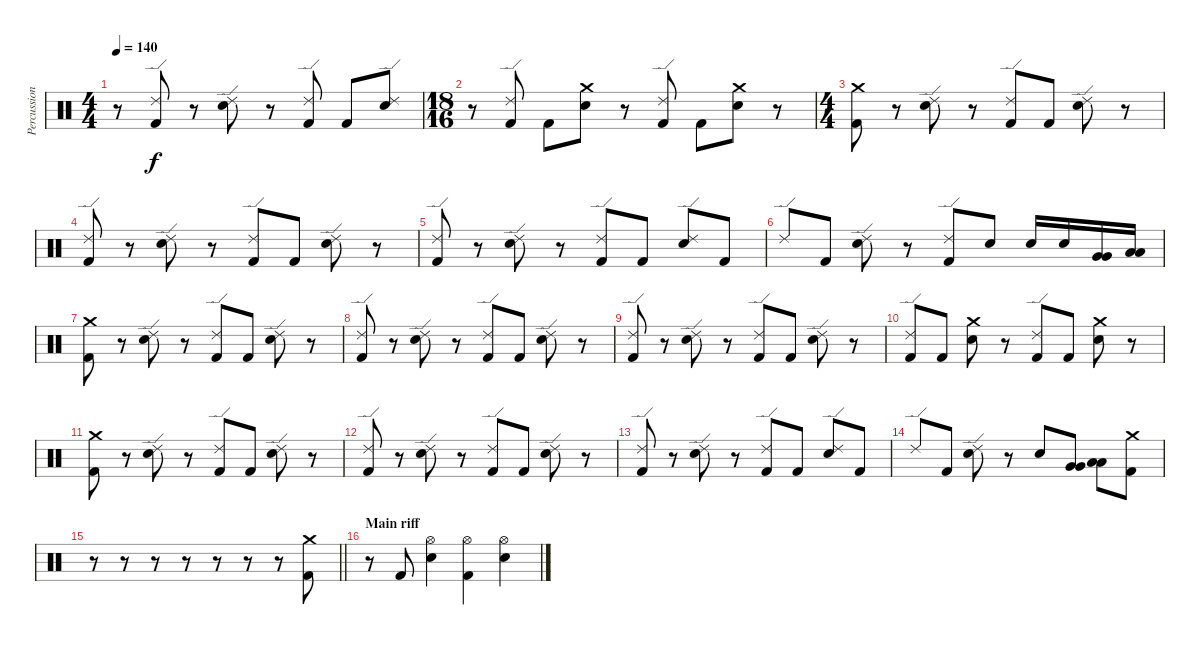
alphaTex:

\track ("Percussion" "Percussion") {instrument percussion}
\staff {score}
\articulation defaults
\ts (4 4)
\tempo 140
\clef neutral
\ks c
r.8{dy f} ("Ride (edge) 2" "Kick (hit) 2").8 r.8 ("Ride (edge) 2" "Electric Snare (hit)").8 r.8 ("Ride (edge) 2" "Kick (hit) 2").8 "Kick (hit) 2".8 ("Ride (edge) 2" "Electric Snare (hit)").8 |
\ts (18 16)
r.8 ("Ride (edge) 2" "Kick (hit) 2").8 "Kick (hit) 2".8 ("Crash medium (hit)" "Electric Snare (hit)").8 r.8 ("Ride (edge) 2" "Kick (hit) 2").8 "Kick (hit) 2".8 ("Crash medium (hit)" "Electric Snare (hit)").8 r.8 |
\ts (4 4)
("Crash medium (hit)" "Kick (hit) 2").8 r.8 ("Ride (edge) 2" "Electric Snare (hit)").8 r.8 ("Ride (edge) 2" "Kick (hit) 2").8 "Kick (hit) 2".8 ("Ride (edge) 2" "Electric Snare (hit)").8 r.8 |
("Ride (edge) 2" "Kick (hit) 2").8 r.8 ("Ride (edge) 2" "Electric Snare (hit)").8 r.8 ("Ride (edge) 2" "Kick (hit) 2").8 "Kick (hit) 2".8 ("Ride (edge) 2" "Electric Snare (hit)").8 r.8 |
("Ride (edge) 2" "Kick (hit) 2").8 r.8 ("Ride (edge) 2" "Electric Snare (hit)").8 r.8 ("Ride (edge) 2" "Kick (hit) 2").8 "Kick (hit) 2".8 ("Ride (edge) 2" "Electric Snare (hit)").8 "Kick (hit) 2".8 |
"Ride (edge) 2".8 "Kick (hit) 2".8 ("Ride (edge) 2" "Electric Snare (hit)").8 r.8 ("Ride (edge) 2" "Kick (hit) 2").8 "Electric Snare (hit)".8 "Electric Snare (hit)".16 "Electric Snare (hit)".16 ("Very Low Tom (hit)" "Very Low Tom (hit)").16 ("Low Tom (hit)" "Low Tom (hit)").16 |
("Crash medium (hit)" "Kick (hit) 2").8 r.8 ("Ride (edge) 2" "Electric Snare (hit)").8 r.8 ("Ride (edge) 2" "Kick (hit) 2").8 "Kick (hit) 2".8 ("Ride (edge) 2" "Electric Snare (hit)").8 r.8 |
("Ride (edge) 2" "Kick (hit) 2").8 r.8 ("Ride (edge) 2" "Electric Snare (hit)").8 r.8 ("Ride (edge) 2" "Kick (hit) 2").8 "Kick (hit) 2".8 ("Ride (edge) 2" "Electric Snare (hit)").8 r.8 |
("Ride (edge) 2" "Kick (hit) 2").8 r.8 ("Ride (edge) 2" "Electric Snare (hit)").8 r.8 ("Ride (edge) 2" "Kick (hit) 2").8 "Kick (hit) 2".8 ("Ride (edge) 2" "Electric Snare (hit)").8 r.8 |
("Ride (edge) 2" "Kick (hit) 2").8 "Kick (hit) 2".8 ("Crash medium (hit)" "Electric Snare (hit)").8 r.8 ("Ride (edge) 2" "Kick (hit) 2").8 "Kick (hit) 2".8 ("Crash medium (hit)" "Electric Snare (hit)").8 r.8 |
("Crash medium (hit)" "Kick (hit) 2").8 r.8 ("Ride (edge) 2" "Electric Snare (hit)").8 r.8 ("Ride (edge) 2" "Kick (hit) 2").8 "Kick (hit) 2".8 ("Ride (edge) 2" "Electric Snare (hit)").8 r.8 |
("Ride (edge) 2" "Kick (hit) 2").8 r.8 ("Ride (edge) 2" "Electric Snare (hit)").8 r.8 ("Ride (edge) 2" "Kick (hit) 2").8 "Kick (hit) 2".8 ("Ride (edge) 2" "Electric Snare (hit)").8 r.8 |
("Ride (edge) 2" "Kick (hit) 2").8 r.8 ("Ride (edge) 2" "Electric Snare (hit)").8 r.8 ("Ride (edge) 2" "Kick (hit) 2").8 "Kick (hit) 2".8 ("Ride (edge) 2" "Electric Snare (hit)").8 "Kick (hit) 2".8 |
"Ride (edge) 2".8 "Kick (hit) 2".8 ("Ride (edge) 2" "Electric Snare (hit)").8 r.8 "Electric Snare (hit)".8 ("Very Low Tom (hit)" "Very Low Tom (hit)").8 ("Low Tom (hit)" "Low Tom (hit)").8 ("Kick (hit) 2" "Crash medium (hit)").8 |
\barLineRight lightlight
r.8 r.8 r.8 r.8 r.8 r.8 r.8 ("Crash medium (hit)" "Kick (hit) 2").8 |
\section ("" "Main riff")
r.8 "Kick (hit) 2".8 ("Hi-Hat (open)" "Electric Snare (hit)").4 ("Hi-Hat (open)" "Kick (hit) 2").4 ("Hi-Hat (open)" "Electric Snare (hit)").4
